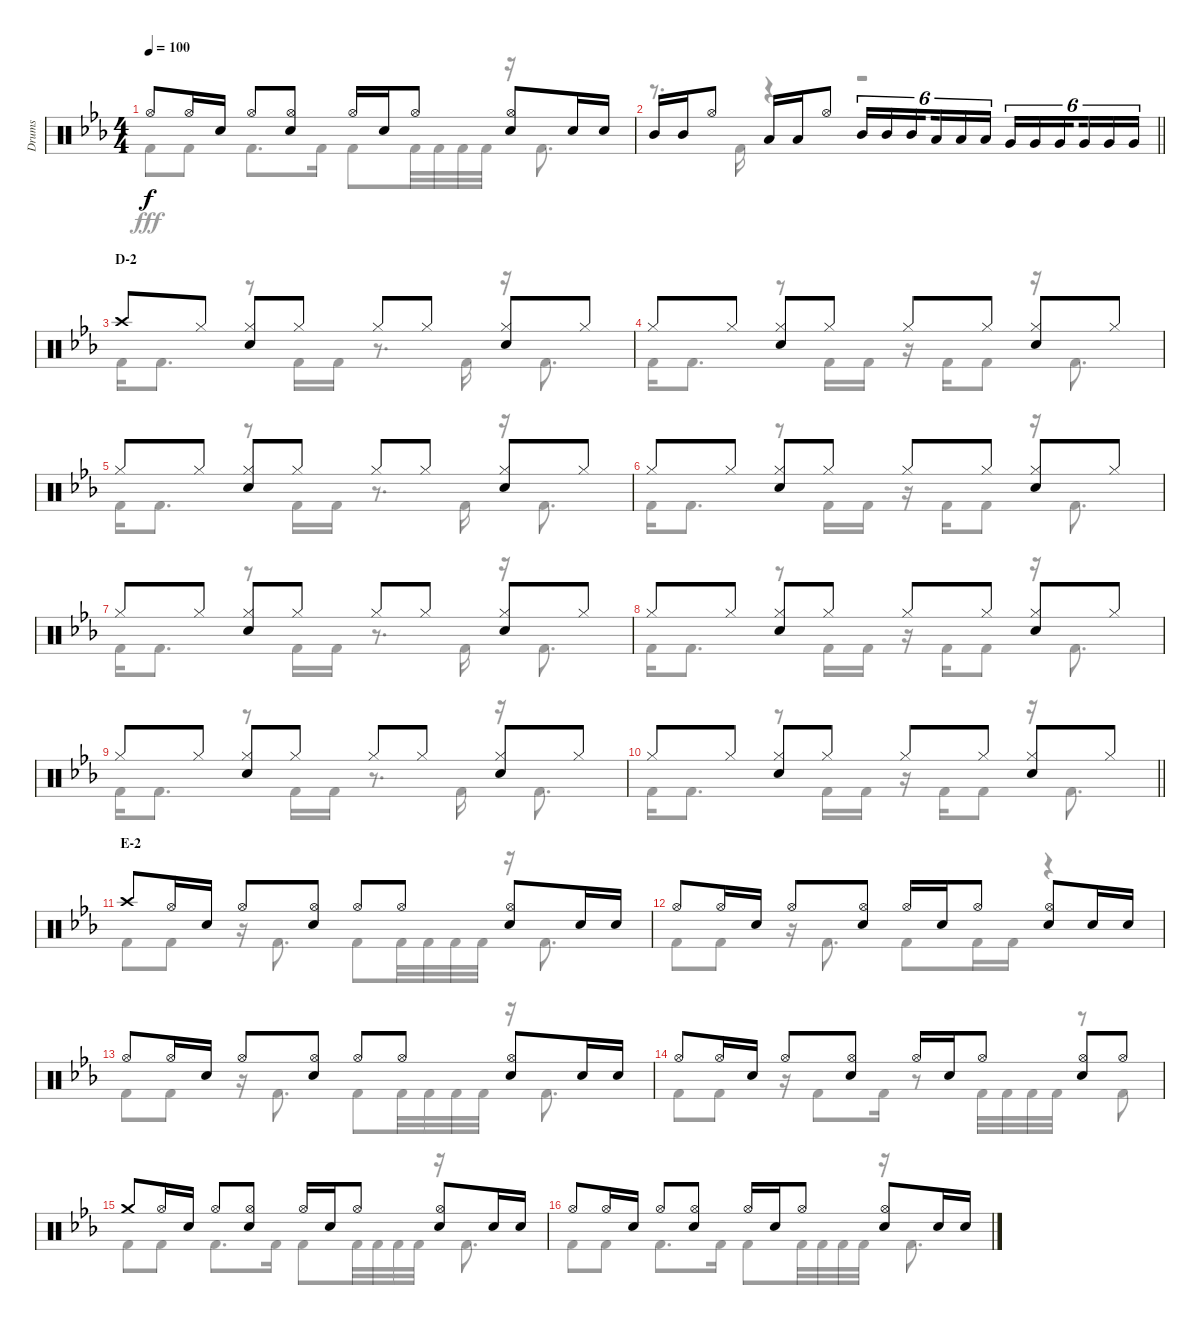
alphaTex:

\track ("Drums" "Drums") {instrument percussion}
\staff {score}
\articulation defaults
\voice
\ts (4 4)
\tempo 100
\clef neutral
\ks eb "Hi-Hat (open)".8{dy f} "Hi-Hat (open)".16 "Snare (hit) 2".16 "Hi-Hat (open)".8
("Hi-Hat (open)" "Snare (hit) 2").8 "Hi-Hat (open)".16 "Snare (hit) 2".16 "Hi-Hat (open)".8 ("Hi-Hat (open)" "Snare (hit) 2").8 "Snare (hit) 2".16 "Snare (hit) 2".16 |
\barLineRight lightlight "Mid Tom (hit)".16 "Mid Tom (hit)".16 "Hi-Hat (open)".8 "Low Tom (hit)".16 "Low Tom (hit)".16 "Hi-Hat (open)".8 "Mid Tom (hit)".16{tu (6 4)} "Mid Tom (hit)".16{tu (6 4)} "Mid Tom (hit)".16{tu (6 4) beam splitsecondary} "Low Tom (hit)".16{tu (6 4)} "Low Tom (hit)".16{tu (6 4)} "Low Tom (hit)".16{tu (6 4)} "Very Low Tom (hit)".16{tu (6 4)} "Very Low Tom (hit)".16{tu (6 4)} "Very Low Tom (hit)".16{tu (6 4) beam splitsecondary} "Very Low Tom (hit)".16{tu (6 4)} "Very Low Tom (hit)".16{tu (6 4)} "Very Low Tom (hit)".16{tu (6 4)}
|
\section ("" "D-2")
"Crash high (hit)".8 "Hi-Hat (closed)".8 ("Hi-Hat (closed)" "Snare (hit) 2").8 "Hi-Hat (closed)".8 "Hi-Hat (closed)".8 "Hi-Hat (closed)".8 ("Hi-Hat (closed)" "Snare (hit) 2").8 "Hi-Hat (closed)".8 |
"Hi-Hat (closed)".8 "Hi-Hat (closed)".8 ("Hi-Hat (closed)" "Snare (hit) 2").8 "Hi-Hat (closed)".8 "Hi-Hat (closed)".8 "Hi-Hat (closed)".8 ("Hi-Hat (closed)" "Snare (hit) 2").8 "Hi-Hat (closed)".8 |
"Hi-Hat (closed)".8 "Hi-Hat (closed)".8 ("Hi-Hat (closed)" "Snare (hit) 2").8 "Hi-Hat (closed)".8 "Hi-Hat (closed)".8 "Hi-Hat (closed)".8 ("Hi-Hat (closed)" "Snare (hit) 2").8 "Hi-Hat (closed)".8 |
"Hi-Hat (closed)".8 "Hi-Hat (closed)".8 ("Hi-Hat (closed)" "Snare (hit) 2").8 "Hi-Hat (closed)".8 "Hi-Hat (closed)".8 "Hi-Hat (closed)".8 ("Hi-Hat (closed)" "Snare (hit) 2").8 "Hi-Hat (closed)".8 |
"Hi-Hat (closed)".8 "Hi-Hat (closed)".8 ("Hi-Hat (closed)" "Snare (hit) 2").8 "Hi-Hat (closed)".8 "Hi-Hat (closed)".8 "Hi-Hat (closed)".8 ("Hi-Hat (closed)" "Snare (hit) 2").8 "Hi-Hat (closed)".8 |
"Hi-Hat (closed)".8 "Hi-Hat (closed)".8 ("Hi-Hat (closed)" "Snare (hit) 2").8 "Hi-Hat (closed)".8 "Hi-Hat (closed)".8 "Hi-Hat (closed)".8 ("Hi-Hat (closed)" "Snare (hit) 2").8 "Hi-Hat (closed)".8 |
"Hi-Hat (closed)".8 "Hi-Hat (closed)".8 ("Hi-Hat (closed)" "Snare (hit) 2").8 "Hi-Hat (closed)".8 "Hi-Hat (closed)".8 "Hi-Hat (closed)".8 ("Hi-Hat (closed)" "Snare (hit) 2").8 "Hi-Hat (closed)".8 |
\barLineRight lightlight "Hi-Hat (closed)".8 "Hi-Hat (closed)".8
("Hi-Hat (closed)" "Snare (hit) 2").8 "Hi-Hat (closed)".8 "Hi-Hat (closed)".8 "Hi-Hat (closed)".8 ("Hi-Hat (closed)" "Snare (hit) 2").8 "Hi-Hat (closed)".8 |
\section ("" "E-2")
"Crash high (hit)".8 "Hi-Hat (open)".16 "Snare (hit) 2".16 "Hi-Hat (open)".8 ("Hi-Hat (open)" "Snare (hit) 2").8 "Hi-Hat (open)".8 "Hi-Hat (open)".8 ("Hi-Hat (open)" "Snare (hit) 2").8 "Snare (hit) 2".16 "Snare (hit) 2".16 |
"Hi-Hat (open)".8 "Hi-Hat (open)".16 "Snare (hit) 2".16 "Hi-Hat (open)".8 ("Hi-Hat (open)" "Snare (hit) 2").8 "Hi-Hat (open)".16 "Snare (hit) 2".16 "Hi-Hat (open)".8 ("Hi-Hat (open)" "Snare (hit) 2").8 "Snare (hit) 2".16 "Snare (hit) 2".16 |
"Hi-Hat (open)".8 "Hi-Hat (open)".16 "Snare (hit) 2".16 "Hi-Hat (open)".8 ("Hi-Hat (open)" "Snare (hit) 2").8 "Hi-Hat (open)".8 "Hi-Hat (open)".8 ("Hi-Hat (open)" "Snare (hit) 2").8 "Snare (hit) 2".16 "Snare (hit) 2".16 |
"Hi-Hat (open)".8 "Hi-Hat (open)".16 "Snare (hit) 2".16 "Hi-Hat (open)".8 ("Hi-Hat (open)" "Snare (hit) 2").8 "Hi-Hat (open)".16 "Snare (hit) 2".16 "Hi-Hat (open)".8 ("Hi-Hat (open)" "Snare (hit) 2").8 "Hi-Hat (open)".8 |
"Crash medium (hit)".8 "Hi-Hat (open)".16 "Snare (hit) 2".16 "Hi-Hat (open)".8 ("Hi-Hat (open)" "Snare (hit) 2").8 "Hi-Hat (open)".16 "Snare (hit) 2".16 "Hi-Hat (open)".8 ("Hi-Hat (open)" "Snare (hit) 2").8 "Snare (hit) 2".16 "Snare (hit) 2".16 |
"Hi-Hat (open)".8 "Hi-Hat (open)".16 "Snare (hit) 2".16 "Hi-Hat (open)".8 ("Hi-Hat (open)" "Snare (hit) 2").8 "Hi-Hat (open)".16 "Snare (hit) 2".16 "Hi-Hat (open)".8 ("Hi-Hat (open)" "Snare (hit) 2").8 "Snare (hit) 2".16 "Snare (hit) 2".16
\voice
\clef neutral
\ottava regular
\simile none
\ks eb "Kick (hit) 2".8{dy fff} "Kick (hit) 2".8 "Kick (hit) 2".8{d} "Kick (hit) 2".16 "Kick (hit) 2".8 "Kick (hit) 2".32 "Kick (hit) 2".32 "Kick (hit) 2".32 "Kick (hit) 2".32
r.16 "Kick (hit) 2".8{d} |
\barLineRight lightlight
r.8{d} "Kick (hit) 2".16 r.4 r.2 |
"Kick (hit) 2".16 "Kick (hit) 2".8{d} r.8 "Kick (hit) 2".16 "Kick (hit) 2".16 r.8{d} "Kick (hit) 2".16 r.16 "Kick (hit) 2".8{d} |
"Kick (hit) 2".16 "Kick (hit) 2".8{d} r.8 "Kick (hit) 2".16 "Kick (hit) 2".16 r.16 "Kick (hit) 2".16 "Kick (hit) 2".8 r.16 "Kick (hit) 2".8{d} |
"Kick (hit) 2".16 "Kick (hit) 2".8{d} r.8 "Kick (hit) 2".16 "Kick (hit) 2".16 r.8{d} "Kick (hit) 2".16 r.16 "Kick (hit) 2".8{d} |
"Kick (hit) 2".16 "Kick (hit) 2".8{d} r.8 "Kick (hit) 2".16 "Kick (hit) 2".16 r.16 "Kick (hit) 2".16 "Kick (hit) 2".8 r.16 "Kick (hit) 2".8{d} |
"Kick (hit) 2".16 "Kick (hit) 2".8{d} r.8 "Kick (hit) 2".16 "Kick (hit) 2".16 r.8{d} "Kick (hit) 2".16 r.16 "Kick (hit) 2".8{d} |
"Kick (hit) 2".16 "Kick (hit) 2".8{d} r.8 "Kick (hit) 2".16 "Kick (hit) 2".16 r.16 "Kick (hit) 2".16 "Kick (hit) 2".8 r.16 "Kick (hit) 2".8{d} |
"Kick (hit) 2".16 "Kick (hit) 2".8{d} r.8 "Kick (hit) 2".16 "Kick (hit) 2".16 r.8{d} "Kick (hit) 2".16 r.16 "Kick (hit) 2".8{d} |
\barLineRight lightlight "Kick (hit) 2".16 "Kick (hit) 2".8{d}
r.8 "Kick (hit) 2".16 "Kick (hit) 2".16 r.16 "Kick (hit) 2".16 "Kick (hit) 2".8 r.16 "Kick (hit) 2".8{d} |
"Kick (hit) 2".8 "Kick (hit) 2".8 r.16 "Kick (hit) 2".8{d} "Kick (hit) 2".8 "Kick (hit) 2".32 "Kick (hit) 2".32 "Kick (hit) 2".32 "Kick (hit) 2".32 r.16 "Kick (hit) 2".8{d} |
"Kick (hit) 2".8 "Kick (hit) 2".8 r.16 "Kick (hit) 2".8{d} "Kick (hit) 2".8 "Kick (hit) 2".16 "Kick (hit) 2".16 r.4 |
"Kick (hit) 2".8 "Kick (hit) 2".8 r.16 "Kick (hit) 2".8{d} "Kick (hit) 2".8 "Kick (hit) 2".32 "Kick (hit) 2".32 "Kick (hit) 2".32 "Kick (hit) 2".32 r.16 "Kick (hit) 2".8{d} |
"Kick (hit) 2".8 "Kick (hit) 2".8 r.16 "Kick (hit) 2".8 "Kick (hit) 2".16 r.8 "Kick (hit) 2".32 "Kick (hit) 2".32 "Kick (hit) 2".32 "Kick (hit) 2".32 r.8 "Kick (hit) 2".8 |
"Kick (hit) 2".8 "Kick (hit) 2".8 "Kick (hit) 2".8{d} "Kick (hit) 2".16 "Kick (hit) 2".8 "Kick (hit) 2".32 "Kick (hit) 2".32 "Kick (hit) 2".32 "Kick (hit) 2".32 r.16 "Kick (hit) 2".8{d} |
"Kick (hit) 2".8 "Kick (hit) 2".8 "Kick (hit) 2".8{d} "Kick (hit) 2".16 "Kick (hit) 2".8 "Kick (hit) 2".32 "Kick (hit) 2".32 "Kick (hit) 2".32 "Kick (hit) 2".32 r.16 "Kick (hit) 2".8{d}
